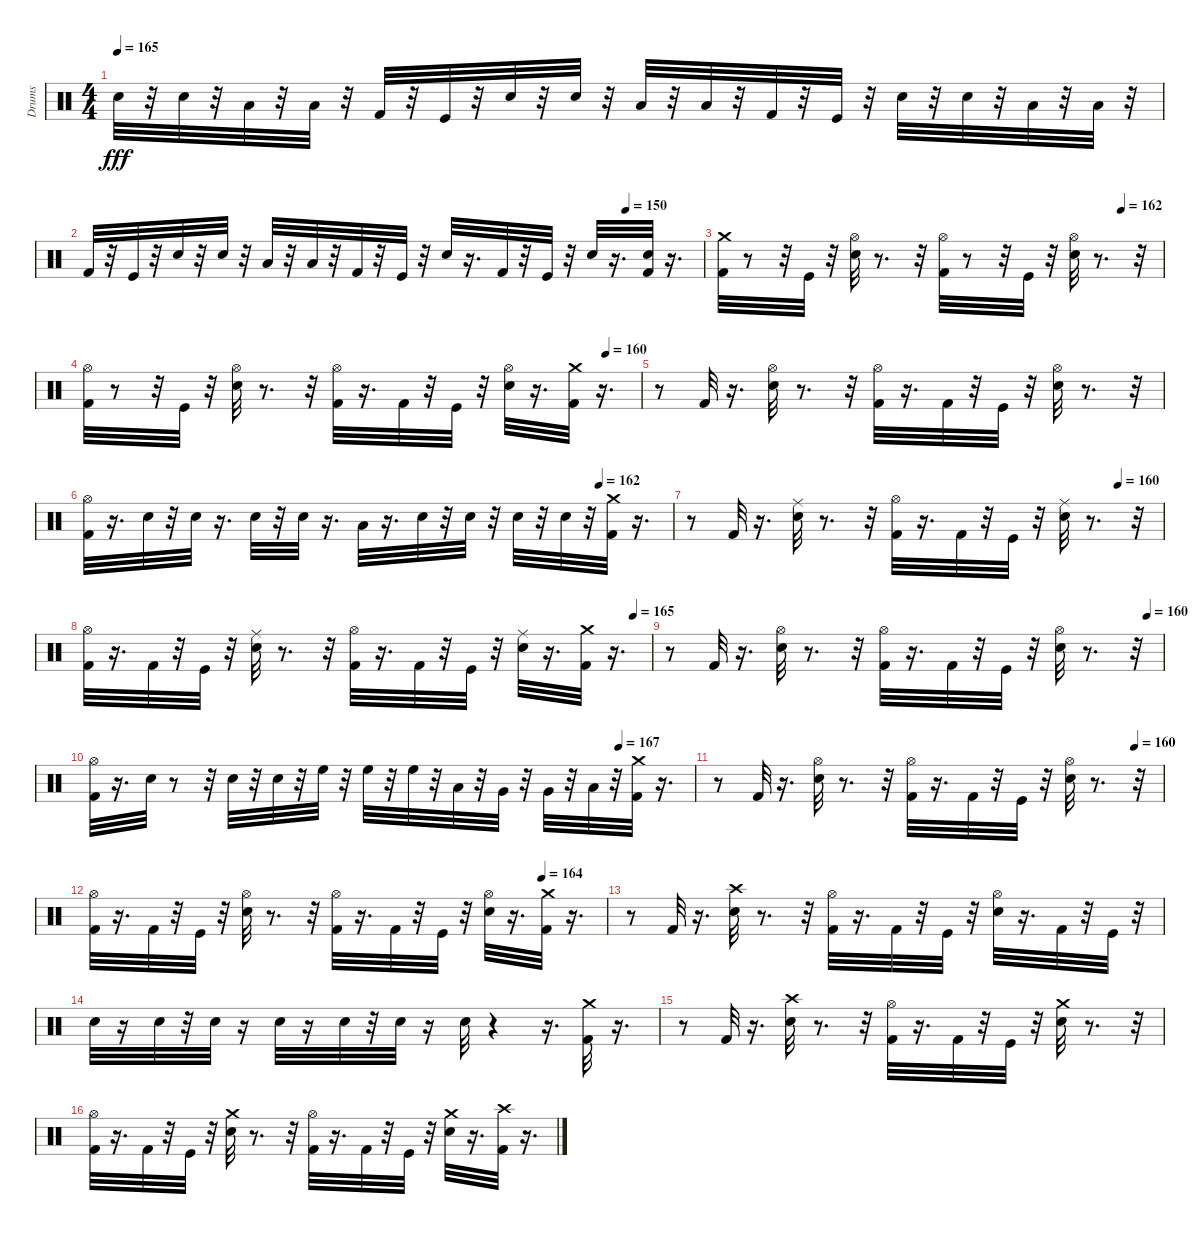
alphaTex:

\track ("Drums" "Drums") {instrument percussion}
\staff {score}
\articulation defaults
\ts (4 4)
\tempo 165
\clef neutral
\ks c "Snare (hit) 2".32{dy fff}
r.32 "Snare (hit) 2".32 r.32 "Low Tom (hit)".32 r.32 "Low Tom (hit)".32 r.32 "Kick (hit) 2".32 r.32 "Kick (hit)".32 r.32 "Snare (hit) 2".32 r.32 "Snare (hit) 2".32 r.32 "Low Tom (hit)".32 r.32 "Low Tom (hit)".32 r.32 "Kick (hit) 2".32 r.32 "Kick (hit)".32 r.32 "Snare (hit) 2".32 r.32 "Snare (hit) 2".32 r.32 "Low Tom (hit)".32 r.32 "Low Tom (hit)".32 r.32 |
\tempo (150 0.875)
"Kick (hit) 2".32 r.32 "Kick (hit)".32 r.32 "Snare (hit) 2".32 r.32 "Snare (hit) 2".32 r.32 "Low Tom (hit)".32 r.32 "Low Tom (hit)".32 r.32 "Kick (hit) 2".32 r.32 "Kick (hit)".32 r.32 "Snare (hit) 2".32 r.16{d} "Kick (hit) 2".32 r.32 "Kick (hit)".32 r.32 "Snare (hit) 2".32 r.16{d} ("Kick (hit) 2" "Snare (hit) 2").32 r.16{d} |
\tempo (162 0.90625)
("Kick (hit) 2" "Crash medium (hit)").32 r.8 r.32 "Kick (hit)".32 r.32 ("Snare (hit) 2" "Hi-Hat (open)").32 r.8{d} r.32 ("Kick (hit) 2" "Hi-Hat (open)").32 r.8 r.32 "Kick (hit)".32 r.32 ("Snare (hit) 2" "Hi-Hat (open)").32 r.8{d} r.32 |
\tempo (160 0.9375)
("Kick (hit) 2" "Hi-Hat (open)").32 r.8 r.32 "Kick (hit)".32 r.32 ("Snare (hit) 2" "Hi-Hat (open)").32 r.8{d} r.32 ("Kick (hit) 2" "Hi-Hat (open)").32 r.16{d} "Kick (hit) 2".32 r.32 "Kick (hit)".32 r.32 ("Snare (hit) 2" "Hi-Hat (open)").32 r.16{d} ("Kick (hit) 2" "Crash medium (hit)").32 r.16{d} |
r.8 "Kick (hit) 2".32 r.16{d} ("Snare (hit) 2" "Hi-Hat (open)").32 r.8{d} r.32 ("Kick (hit) 2" "Hi-Hat (open)").32 r.16{d} "Kick (hit) 2".32 r.32 "Kick (hit)".32 r.32 ("Snare (hit) 2" "Hi-Hat (open)").32 r.8{d} r.32 |
\tempo (162 0.875)
("Kick (hit) 2" "Hi-Hat (open)").32 r.16{d} "Snare (hit) 2".32 r.32 "Snare (hit) 2".32 r.16{d} "Snare (hit) 2".32 r.32 "Snare (hit) 2".32 r.16{d} "Low Tom (hit)".32 r.16{d} "Snare (hit) 2".32 r.32 "Snare (hit) 2".32 r.32 "Snare (hit) 2".32 r.32 "Snare (hit) 2".32 r.32 ("Kick (hit) 2" "Crash medium (hit)").32 r.16{d} |
\tempo (160 0.90625)
r.8 "Kick (hit) 2".32 r.16{d} ("Snare (hit) 2" "Ride (middle)").32 r.8{d} r.32 ("Kick (hit) 2" "Hi-Hat (open)").32 r.16{d} "Kick (hit) 2".32 r.32 "Kick (hit)".32 r.32 ("Snare (hit) 2" "Ride (middle)").32 r.8{d} r.32 |
\tempo (165 0.96875)
("Kick (hit) 2" "Hi-Hat (open)").32 r.16{d} "Kick (hit) 2".32 r.32 "Kick (hit)".32 r.32 ("Snare (hit) 2" "Ride (middle)").32 r.8{d} r.32 ("Kick (hit) 2" "Hi-Hat (open)").32 r.16{d} "Kick (hit) 2".32 r.32 "Kick (hit)".32 r.32 ("Snare (hit) 2" "Ride (middle)").32 r.16{d} ("Kick (hit) 2" "Crash medium (hit)").32 r.16{d} |
\tempo (160 0.96875)
r.8 "Kick (hit) 2".32 r.16{d} ("Snare (hit) 2" "Hi-Hat (open)").32 r.8{d} r.32 ("Kick (hit) 2" "Hi-Hat (open)").32 r.16{d} "Kick (hit) 2".32 r.32 "Kick (hit)".32 r.32 ("Snare (hit) 2" "Hi-Hat (open)").32 r.8{d} r.32 |
\tempo (167 0.875)
("Kick (hit) 2" "Hi-Hat (open)").32 r.16{d} "Snare (hit) 2".32 r.8 r.32 "Snare (hit) 2".32 r.32 "Snare (hit) 2".32 r.32 "High Floor Tom (hit)".32 r.32 "High Floor Tom (hit)".32 r.32 "High Floor Tom (hit)".32 r.32 "Low Tom (hit)".32 r.32 "Very Low Tom (hit)".32 r.32 "Very Low Tom (hit)".32 r.32 "Low Floor Tom (hit)".32 r.32 ("Crash medium (hit)" "Kick (hit) 2").32 r.16{d} |
\tempo (160 0.9375)
r.8 "Kick (hit) 2".32 r.16{d} ("Snare (hit) 2" "Hi-Hat (open)").32 r.8{d} r.32 ("Kick (hit) 2" "Hi-Hat (open)").32 r.16{d} "Kick (hit) 2".32 r.32 "Kick (hit)".32 r.32 ("Snare (hit) 2" "Hi-Hat (open)").32 r.8{d} r.32 |
\tempo (164 0.875)
("Kick (hit) 2" "Hi-Hat (open)").32 r.16{d} "Kick (hit) 2".32 r.32 "Kick (hit)".32 r.32 ("Snare (hit) 2" "Hi-Hat (open)").32 r.8{d} r.32 ("Kick (hit) 2" "Hi-Hat (open)").32 r.16{d} "Kick (hit) 2".32 r.32 "Kick (hit)".32 r.32 ("Snare (hit) 2" "Hi-Hat (open)").32 r.16{d} ("Kick (hit) 2" "Crash medium (hit)").32 r.16{d} |
r.8 "Kick (hit) 2".32 r.16{d} ("Snare (hit) 2" "Crash high (hit)").32 r.8{d} r.32 ("Kick (hit) 2" "Hi-Hat (open)").32 r.16{d} "Kick (hit) 2".32 r.32 "Kick (hit)".32 r.32 ("Snare (hit) 2" "Hi-Hat (open)").32 r.16{d} "Kick (hit) 2".32 r.32 "Kick (hit)".32 r.32 |
"Snare (hit) 2".32 r.16 "Snare (hit) 2".32 r.32 "Snare (hit) 2".32 r.16 "Snare (hit) 2".32 r.16 "Snare (hit) 2".32 r.32 "Snare (hit) 2".32 r.16 "Snare (hit) 2".32 r.4 r.16{d} ("Crash medium (hit)" "Kick (hit) 2").32 r.16{d} |
r.8 "Kick (hit) 2".32 r.16{d} ("Snare (hit) 2" "Crash high (hit)").32 r.8{d} r.32 ("Kick (hit) 2" "Hi-Hat (open)").32 r.16{d} "Kick (hit) 2".32 r.32 "Kick (hit)".32 r.32 ("Snare (hit) 2" "Crash medium (hit)").32 r.8{d} r.32 |
("Kick (hit) 2" "Hi-Hat (open)").32 r.16{d} "Kick (hit) 2".32 r.32 "Kick (hit)".32 r.32 ("Snare (hit) 2" "Crash medium (hit)").32 r.8{d} r.32 ("Kick (hit) 2" "Hi-Hat (open)").32 r.16{d} "Kick (hit) 2".32 r.32 "Kick (hit)".32 r.32 ("Snare (hit) 2" "Crash medium (hit)").32 r.16{d} ("Kick (hit) 2" "Crash high (hit)").32 r.16{d}
